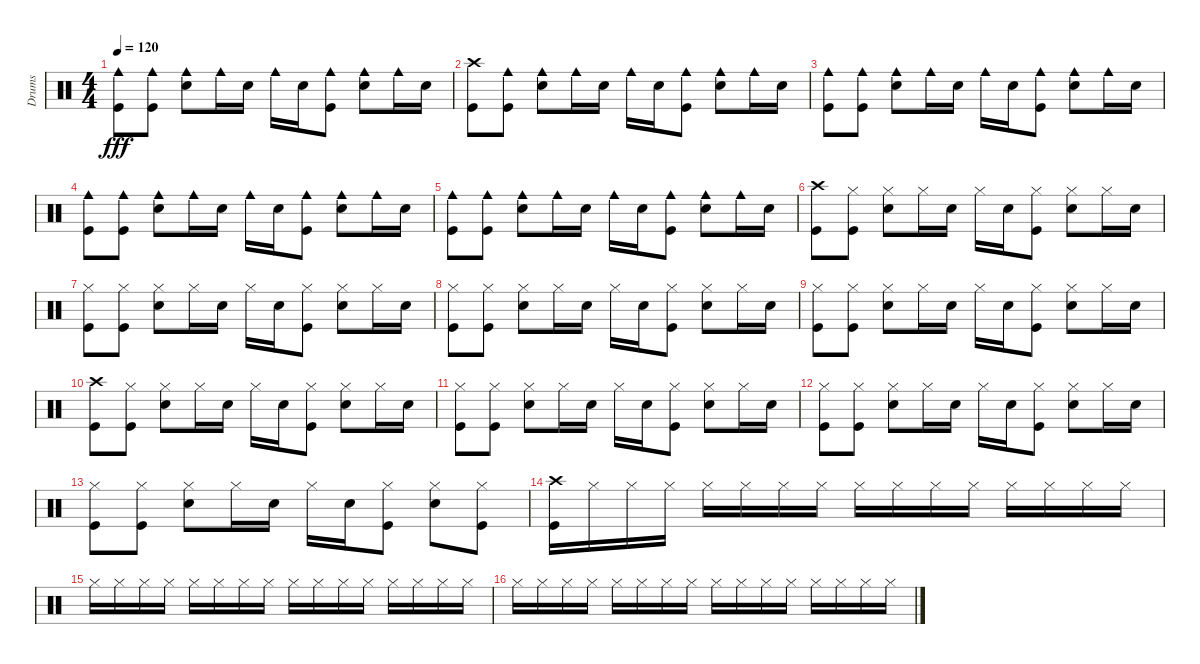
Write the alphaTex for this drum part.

\track ("Drums" "Drums") {instrument percussion}
\staff {score}
\articulation defaults
\ts (4 4)
\tempo 120
\clef neutral
\ks c
("Cowbell medium (hit)" "Kick (hit)").8{dy fff} ("Cowbell medium (hit)" "Kick (hit)").8 ("Cowbell medium (hit)" "Snare (hit) 2").8 "Cowbell medium (hit)".16 "Snare (hit) 2".16 "Cowbell medium (hit)".16 "Snare (hit) 2".16 ("Cowbell medium (hit)" "Kick (hit)").8 ("Cowbell medium (hit)" "Snare (hit) 2").8 "Cowbell medium (hit)".16 "Snare (hit) 2".16 |
("Crash high (hit)" "Kick (hit)").8 ("Cowbell medium (hit)" "Kick (hit)").8 ("Cowbell medium (hit)" "Snare (hit) 2").8 "Cowbell medium (hit)".16 "Snare (hit) 2".16 "Cowbell medium (hit)".16 "Snare (hit) 2".16 ("Cowbell medium (hit)" "Kick (hit)").8 ("Cowbell medium (hit)" "Snare (hit) 2").8 "Cowbell medium (hit)".16 "Snare (hit) 2".16 |
("Cowbell medium (hit)" "Kick (hit)").8 ("Cowbell medium (hit)" "Kick (hit)").8 ("Cowbell medium (hit)" "Snare (hit) 2").8 "Cowbell medium (hit)".16 "Snare (hit) 2".16 "Cowbell medium (hit)".16 "Snare (hit) 2".16 ("Cowbell medium (hit)" "Kick (hit)").8 ("Cowbell medium (hit)" "Snare (hit) 2").8 "Cowbell medium (hit)".16 "Snare (hit) 2".16 |
("Cowbell medium (hit)" "Kick (hit)").8 ("Cowbell medium (hit)" "Kick (hit)").8 ("Cowbell medium (hit)" "Snare (hit) 2").8 "Cowbell medium (hit)".16 "Snare (hit) 2".16 "Cowbell medium (hit)".16 "Snare (hit) 2".16 ("Cowbell medium (hit)" "Kick (hit)").8 ("Cowbell medium (hit)" "Snare (hit) 2").8 "Cowbell medium (hit)".16 "Snare (hit) 2".16 |
("Cowbell medium (hit)" "Kick (hit)").8 ("Cowbell medium (hit)" "Kick (hit)").8 ("Cowbell medium (hit)" "Snare (hit) 2").8 "Cowbell medium (hit)".16 "Snare (hit) 2".16 "Cowbell medium (hit)".16 "Snare (hit) 2".16 ("Cowbell medium (hit)" "Kick (hit)").8 ("Cowbell medium (hit)" "Snare (hit) 2").8 "Cowbell medium (hit)".16 "Snare (hit) 2".16 |
("Crash high (hit)" "Kick (hit)").8 ("Hi-Hat (closed)" "Kick (hit)").8 ("Hi-Hat (closed)" "Snare (hit) 2").8 "Hi-Hat (closed)".16 "Snare (hit) 2".16 "Hi-Hat (closed)".16 "Snare (hit) 2".16 ("Hi-Hat (closed)" "Kick (hit)").8 ("Hi-Hat (closed)" "Snare (hit) 2").8 "Hi-Hat (closed)".16 "Snare (hit) 2".16 |
("Hi-Hat (closed)" "Kick (hit)").8 ("Hi-Hat (closed)" "Kick (hit)").8 ("Hi-Hat (closed)" "Snare (hit) 2").8 "Hi-Hat (closed)".16 "Snare (hit) 2".16 "Hi-Hat (closed)".16 "Snare (hit) 2".16 ("Hi-Hat (closed)" "Kick (hit)").8 ("Hi-Hat (closed)" "Snare (hit) 2").8 "Hi-Hat (closed)".16 "Snare (hit) 2".16 |
("Hi-Hat (closed)" "Kick (hit)").8 ("Hi-Hat (closed)" "Kick (hit)").8 ("Hi-Hat (closed)" "Snare (hit) 2").8 "Hi-Hat (closed)".16 "Snare (hit) 2".16 "Hi-Hat (closed)".16 "Snare (hit) 2".16 ("Hi-Hat (closed)" "Kick (hit)").8 ("Hi-Hat (closed)" "Snare (hit) 2").8 "Hi-Hat (closed)".16 "Snare (hit) 2".16 |
("Hi-Hat (closed)" "Kick (hit)").8 ("Hi-Hat (closed)" "Kick (hit)").8 ("Hi-Hat (closed)" "Snare (hit) 2").8 "Hi-Hat (closed)".16 "Snare (hit) 2".16 "Hi-Hat (closed)".16 "Snare (hit) 2".16 ("Hi-Hat (closed)" "Kick (hit)").8 ("Hi-Hat (closed)" "Snare (hit) 2").8 "Hi-Hat (closed)".16 "Snare (hit) 2".16 |
("Crash high (hit)" "Kick (hit)").8 ("Hi-Hat (closed)" "Kick (hit)").8 ("Hi-Hat (closed)" "Snare (hit) 2").8 "Hi-Hat (closed)".16 "Snare (hit) 2".16 "Hi-Hat (closed)".16 "Snare (hit) 2".16 ("Hi-Hat (closed)" "Kick (hit)").8 ("Hi-Hat (closed)" "Snare (hit) 2").8 "Hi-Hat (closed)".16 "Snare (hit) 2".16 |
("Hi-Hat (closed)" "Kick (hit)").8 ("Hi-Hat (closed)" "Kick (hit)").8 ("Hi-Hat (closed)" "Snare (hit) 2").8 "Hi-Hat (closed)".16 "Snare (hit) 2".16 "Hi-Hat (closed)".16 "Snare (hit) 2".16 ("Hi-Hat (closed)" "Kick (hit)").8 ("Hi-Hat (closed)" "Snare (hit) 2").8 "Hi-Hat (closed)".16 "Snare (hit) 2".16 |
("Hi-Hat (closed)" "Kick (hit)").8 ("Hi-Hat (closed)" "Kick (hit)").8 ("Hi-Hat (closed)" "Snare (hit) 2").8 "Hi-Hat (closed)".16 "Snare (hit) 2".16 "Hi-Hat (closed)".16 "Snare (hit) 2".16 ("Hi-Hat (closed)" "Kick (hit)").8 ("Hi-Hat (closed)" "Snare (hit) 2").8 "Hi-Hat (closed)".16 "Snare (hit) 2".16 |
("Hi-Hat (closed)" "Kick (hit)").8 ("Hi-Hat (closed)" "Kick (hit)").8 ("Hi-Hat (closed)" "Snare (hit) 2").8 "Hi-Hat (closed)".16 "Snare (hit) 2".16 "Hi-Hat (closed)".16 "Snare (hit) 2".16 ("Hi-Hat (closed)" "Kick (hit)").8 ("Hi-Hat (closed)" "Snare (hit) 2").8 ("Hi-Hat (closed)" "Kick (hit)").8 |
("Crash high (hit)" "Kick (hit)").16 "Hi-Hat (closed)".16 "Hi-Hat (closed)".16 "Hi-Hat (closed)".16 "Hi-Hat (closed)".16 "Hi-Hat (closed)".16 "Hi-Hat (closed)".16 "Hi-Hat (closed)".16 "Hi-Hat (closed)".16 "Hi-Hat (closed)".16 "Hi-Hat (closed)".16 "Hi-Hat (closed)".16 "Hi-Hat (closed)".16 "Hi-Hat (closed)".16 "Hi-Hat (closed)".16 "Hi-Hat (closed)".16 |
"Hi-Hat (closed)".16 "Hi-Hat (closed)".16 "Hi-Hat (closed)".16 "Hi-Hat (closed)".16 "Hi-Hat (closed)".16 "Hi-Hat (closed)".16 "Hi-Hat (closed)".16 "Hi-Hat (closed)".16 "Hi-Hat (closed)".16 "Hi-Hat (closed)".16 "Hi-Hat (closed)".16 "Hi-Hat (closed)".16 "Hi-Hat (closed)".16 "Hi-Hat (closed)".16 "Hi-Hat (closed)".16 "Hi-Hat (closed)".16 |
"Hi-Hat (closed)".16 "Hi-Hat (closed)".16 "Hi-Hat (closed)".16 "Hi-Hat (closed)".16 "Hi-Hat (closed)".16 "Hi-Hat (closed)".16 "Hi-Hat (closed)".16 "Hi-Hat (closed)".16 "Hi-Hat (closed)".16 "Hi-Hat (closed)".16 "Hi-Hat (closed)".16 "Hi-Hat (closed)".16 "Hi-Hat (closed)".16 "Hi-Hat (closed)".16 "Hi-Hat (closed)".16 "Hi-Hat (closed)".16
